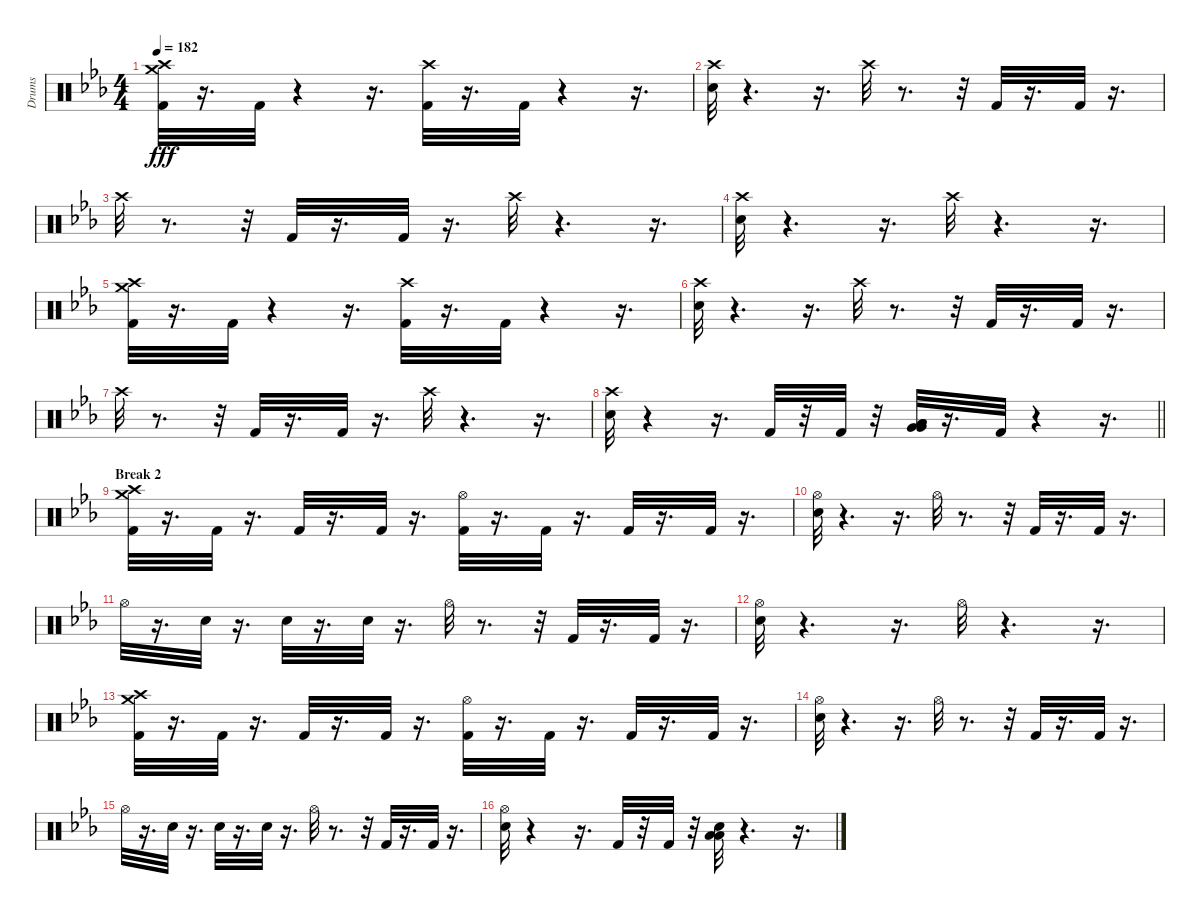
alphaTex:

\track ("Drums" "Drums") {instrument percussion}
\staff {score}
\articulation defaults
\ts (4 4)
\tempo 182
\clef neutral
\ks cminor
("Crash medium (hit)" "Crash high (hit)" "Kick (hit) 2").32{dy fff} r.16{d} "Kick (hit) 2".32 r.4 r.16{d} ("Kick (hit) 2" "Crash high (hit)").32 r.16{d} "Kick (hit) 2".32 r.4 r.16{d} |
("Snare (hit) 2" "Crash high (hit)").32 r.4{d} r.16{d} "Crash high (hit)".32 r.8{d} r.32 "Kick (hit) 2".32 r.16{d} "Kick (hit) 2".32 r.16{d} |
"Crash high (hit)".32 r.8{d} r.32 "Kick (hit) 2".32 r.16{d} "Kick (hit) 2".32 r.16{d} "Crash high (hit)".32 r.4{d} r.16{d} |
("Snare (hit) 2" "Crash high (hit)").32 r.4{d} r.16{d} "Crash high (hit)".32 r.4{d} r.16{d} |
("Crash medium (hit)" "Crash high (hit)" "Kick (hit) 2").32 r.16{d} "Kick (hit) 2".32 r.4 r.16{d} ("Kick (hit) 2" "Crash high (hit)").32 r.16{d} "Kick (hit) 2".32 r.4 r.16{d} |
("Snare (hit) 2" "Crash high (hit)").32 r.4{d} r.16{d} "Crash high (hit)".32 r.8{d} r.32 "Kick (hit) 2".32 r.16{d} "Kick (hit) 2".32 r.16{d} |
"Crash high (hit)".32 r.8{d} r.32 "Kick (hit) 2".32 r.16{d} "Kick (hit) 2".32 r.16{d} "Crash high (hit)".32 r.4{d} r.16{d} |
\barLineRight lightlight
("Snare (hit) 2" "Crash high (hit)").32 r.4 r.16{d} "Kick (hit) 2".32 r.32 "Kick (hit) 2".32 r.32 ("Low Floor Tom (hit)" "Very Low Tom (hit)" "Very Low Tom (hit)" "Low Floor Tom (hit)").32 r.16{d} "Kick (hit) 2".32 r.4 r.16{d} |
\section ("" "Break 2")
("Crash medium (hit)" "Crash high (hit)" "Kick (hit) 2").32 r.16{d} "Kick (hit) 2".32 r.16{d} "Kick (hit) 2".32 r.16{d} "Kick (hit) 2".32 r.16{d} ("Hi-Hat (open)" "Kick (hit) 2").32 r.16{d} "Kick (hit) 2".32 r.16{d} "Kick (hit) 2".32 r.16{d} "Kick (hit) 2".32 r.16{d} |
("Hi-Hat (open)" "Snare (hit) 2").32 r.4{d} r.16{d} "Hi-Hat (open)".32 r.8{d} r.32 "Kick (hit) 2".32 r.16{d} "Kick (hit) 2".32 r.16{d} |
"Hi-Hat (open)".32 r.16{d} "Snare (hit) 2".32 r.16{d} "Snare (hit) 2".32 r.16{d} "Snare (hit) 2".32 r.16{d} "Hi-Hat (open)".32 r.8{d} r.32 "Kick (hit) 2".32 r.16{d} "Kick (hit) 2".32 r.16{d} |
("Snare (hit) 2" "Hi-Hat (open)").32 r.4{d} r.16{d} "Hi-Hat (open)".32 r.4{d} r.16{d} |
("Crash medium (hit)" "Crash high (hit)" "Kick (hit) 2").32 r.16{d} "Kick (hit) 2".32 r.16{d} "Kick (hit) 2".32 r.16{d} "Kick (hit) 2".32 r.16{d} ("Hi-Hat (open)" "Kick (hit) 2").32 r.16{d} "Kick (hit) 2".32 r.16{d} "Kick (hit) 2".32 r.16{d} "Kick (hit) 2".32 r.16{d} |
("Hi-Hat (open)" "Snare (hit) 2").32 r.4{d} r.16{d} "Hi-Hat (open)".32 r.8{d} r.32 "Kick (hit) 2".32 r.16{d} "Kick (hit) 2".32 r.16{d} |
"Hi-Hat (open)".32 r.16{d} "Snare (hit) 2".32 r.16{d} "Snare (hit) 2".32 r.16{d} "Snare (hit) 2".32 r.16{d} "Hi-Hat (open)".32 r.8{d} r.32 "Kick (hit) 2".32 r.16{d} "Kick (hit) 2".32 r.16{d} |
("Snare (hit) 2" "Hi-Hat (open)").32 r.4 r.16{d} "Kick (hit) 2".32 r.32 "Kick (hit) 2".32 r.32 ("Low Floor Tom (hit)" "Low Floor Tom (hit)" "Snare (hit) 2").32 r.4{d} r.16{d}
